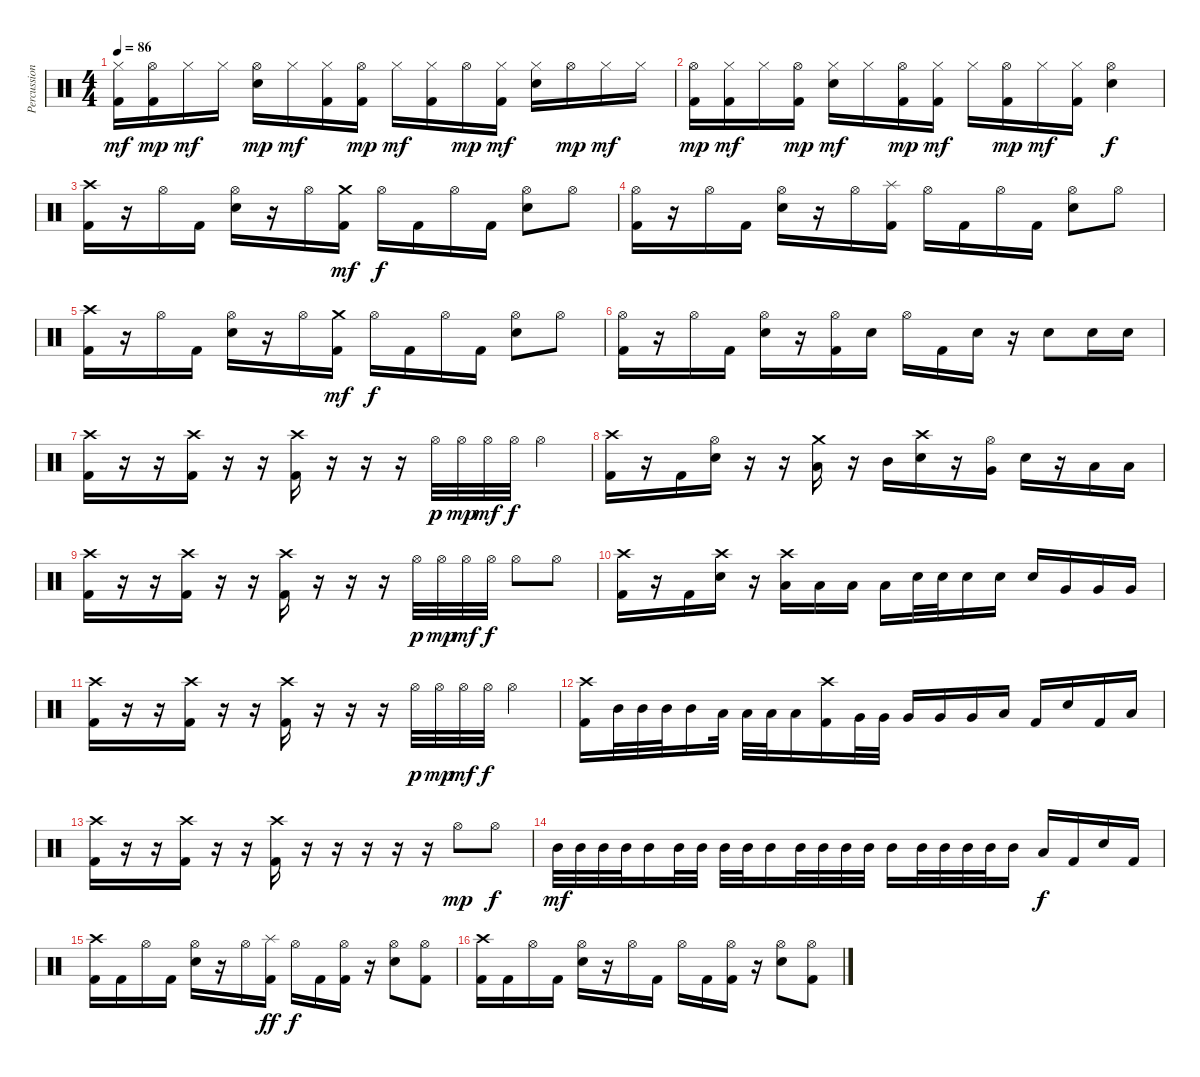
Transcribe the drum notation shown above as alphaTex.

\track ("Percussion" "Percussion") {instrument percussion}
\staff {score}
\articulation defaults
\ts (4 4)
\tempo 86
\clef neutral
\ks c
("Hi-Hat (closed)" "Kick (hit) 2").16{dy mf} ("Hi-Hat (open)" "Kick (hit) 2").16{dy mp} "Hi-Hat (closed)".16{dy mf} "Hi-Hat (closed)".16 ("Hi-Hat (open)" "Electric Snare (hit)").16{dy mp} "Hi-Hat (closed)".16{dy mf} ("Hi-Hat (closed)" "Kick (hit) 2").16 ("Hi-Hat (open)" "Kick (hit) 2").16{dy mp} "Hi-Hat (closed)".16{dy mf} ("Hi-Hat (closed)" "Kick (hit) 2").16 "Hi-Hat (open)".16{dy mp} ("Hi-Hat (closed)" "Kick (hit) 2").16{dy mf} ("Hi-Hat (closed)" "Electric Snare (hit)").16 "Hi-Hat (open)".16{dy mp} "Hi-Hat (closed)".16{dy mf} "Hi-Hat (closed)".16 |
("Hi-Hat (open)" "Kick (hit) 2").16{dy mp} ("Hi-Hat (closed)" "Kick (hit) 2").16{dy mf} "Hi-Hat (closed)".16 ("Hi-Hat (open)" "Kick (hit) 2").16{dy mp} ("Hi-Hat (closed)" "Electric Snare (hit)").16{dy mf} "Hi-Hat (closed)".16 ("Hi-Hat (open)" "Kick (hit) 2").16{dy mp} ("Hi-Hat (closed)" "Kick (hit) 2").16{dy mf} "Hi-Hat (closed)".16 ("Hi-Hat (open)" "Kick (hit) 2").16{dy mp} "Hi-Hat (closed)".16{dy mf} ("Hi-Hat (closed)" "Kick (hit) 2").16 ("Hi-Hat (open)" "Electric Snare (hit)").4{dy f} |
("Crash high (hit)" "Kick (hit) 2").16 r.16 "Hi-Hat (open)".16 "Kick (hit) 2".16 ("Hi-Hat (open)" "Electric Snare (hit)").16 r.16 "Hi-Hat (open)".16 ("Crash medium (hit)" "Kick (hit) 2").16{dy mf} "Hi-Hat (open)".16{dy f} "Kick (hit) 2".16 "Hi-Hat (open)".16 "Kick (hit) 2".16 ("Hi-Hat (open)" "Electric Snare (hit)").8 "Hi-Hat (open)".8 |
("Hi-Hat (open)" "Kick (hit) 2").16 r.16 "Hi-Hat (open)".16 "Kick (hit) 2".16 ("Hi-Hat (open)" "Electric Snare (hit)").16 r.16 "Hi-Hat (open)".16 ("Splash (hit)" "Kick (hit) 2").16 "Hi-Hat (open)".16 "Kick (hit) 2".16 "Hi-Hat (open)".16 "Kick (hit) 2".16 ("Hi-Hat (open)" "Electric Snare (hit)").8 "Hi-Hat (open)".8 |
("Crash high (hit)" "Kick (hit) 2").16 r.16 "Hi-Hat (open)".16 "Kick (hit) 2".16 ("Hi-Hat (open)" "Electric Snare (hit)").16 r.16 "Hi-Hat (open)".16 ("Crash medium (hit)" "Kick (hit) 2").16{dy mf} "Hi-Hat (open)".16{dy f} "Kick (hit) 2".16 "Hi-Hat (open)".16 "Kick (hit) 2".16 ("Hi-Hat (open)" "Electric Snare (hit)").8 "Hi-Hat (open)".8 |
("Hi-Hat (open)" "Kick (hit) 2").16 r.16 "Hi-Hat (open)".16 "Kick (hit) 2".16 ("Hi-Hat (open)" "Electric Snare (hit)").16 r.16 ("Hi-Hat (open)" "Kick (hit) 2").16 "Electric Snare (hit)".16 "Hi-Hat (open)".16 "Kick (hit) 2".16 "Electric Snare (hit)".16 r.16 "Electric Snare (hit)".8 "Electric Snare (hit)".16 "Electric Snare (hit)".16 |
("Crash high (hit)" "Kick (hit) 2").16 r.16 r.16 ("Crash high (hit)" "Kick (hit) 2").16 r.16 r.16 ("Crash high (hit)" "Kick (hit) 2").16 r.16 r.16 r.16 "Hi-Hat (open)".32{dy p} "Hi-Hat (open)".32{dy mp} "Hi-Hat (open)".32{dy mf} "Hi-Hat (open)".32{dy f} "Hi-Hat (open)".4 |
("Crash high (hit)" "Kick (hit) 2").16 r.16 "Kick (hit) 2".16 ("Hi-Hat (open)" "Electric Snare (hit)").16 r.16 r.16 ("Crash medium (hit)" "Low Tom (hit)").16 r.16 "Mid Tom (hit)".16 ("Crash high (hit)" "Electric Snare (hit)").16 r.16 ("Hi-Hat (open)" "Very Low Tom (hit)").16 "Electric Snare (hit)".16 r.16 "Low Tom (hit)".16 "Low Floor Tom (hit)".16 |
("Crash high (hit)" "Kick (hit) 2").16 r.16 r.16 ("Crash high (hit)" "Kick (hit) 2").16 r.16 r.16 ("Crash high (hit)" "Kick (hit) 2").16 r.16 r.16 r.16 "Hi-Hat (open)".32{dy p} "Hi-Hat (open)".32{dy mp} "Hi-Hat (open)".32{dy mf} "Hi-Hat (open)".32{dy f} "Hi-Hat (open)".8 "Hi-Hat (open)".8 |
("Crash high (hit)" "Kick (hit) 2").16 r.16 "Kick (hit) 2".16 ("Crash high (hit)" "Electric Snare (hit)").16 r.16 ("Crash high (hit)" "Low Tom (hit)").16 "Low Tom (hit)".16 "Low Tom (hit)".16 "Low Tom (hit)".16 "Electric Snare (hit)".32 "Electric Snare (hit)".32 "Electric Snare (hit)".16 "Electric Snare (hit)".16 "Electric Snare (hit)".16 "Very Low Tom (hit)".16 "Very Low Tom (hit)".16 "Very Low Tom (hit)".16 |
("Crash high (hit)" "Kick (hit) 2").16 r.16 r.16 ("Crash high (hit)" "Kick (hit) 2").16 r.16 r.16 ("Crash high (hit)" "Kick (hit) 2").16 r.16 r.16 r.16 "Hi-Hat (open)".32{dy p} "Hi-Hat (open)".32{dy mp} "Hi-Hat (open)".32{dy mf} "Hi-Hat (open)".32{dy f} "Hi-Hat (open)".4 |
("Crash high (hit)" "Kick (hit) 2").16 "Mid Tom (hit)".32 "Mid Tom (hit)".32 "Mid Tom (hit)".32 "Mid Tom (hit)".16 "Low Tom (hit)".32 "Low Tom (hit)".32 "Low Tom (hit)".32 "Low Tom (hit)".16 ("Crash high (hit)" "Kick (hit) 2").16 "Very Low Tom (hit)".32 "Very Low Tom (hit)".32 "Very Low Tom (hit)".16 "Very Low Tom (hit)".16 "Very Low Tom (hit)".16 "Low Floor Tom (hit)".16 "Kick (hit) 2".16 "Electric Snare (hit)".16 "Kick (hit) 2".16 "Low Floor Tom (hit)".16 |
("Crash high (hit)" "Kick (hit) 2").16 r.16 r.16 ("Crash high (hit)" "Kick (hit) 2").16 r.16 r.16 ("Crash high (hit)" "Kick (hit) 2").16 r.16 r.16 r.16 r.16 r.16 "Hi-Hat (open)".8{dy mp} "Hi-Hat (open)".8{dy f} |
"Mid Tom (hit)".32{dy mf} "Mid Tom (hit)".32 "Mid Tom (hit)".32 "Mid Tom (hit)".32 "Mid Tom (hit)".16 "Mid Tom (hit)".32 "Mid Tom (hit)".32 "Mid Tom (hit)".32 "Mid Tom (hit)".32 "Mid Tom (hit)".16 "Mid Tom (hit)".32 "Mid Tom (hit)".32 "Mid Tom (hit)".32 "Mid Tom (hit)".32 "Mid Tom (hit)".16 "Mid Tom (hit)".32 "Mid Tom (hit)".32 "Mid Tom (hit)".32 "Mid Tom (hit)".32 "Mid Tom (hit)".16 "Low Tom (hit)".16{dy f} "Kick (hit) 2".16 "Electric Snare (hit)".16 "Kick (hit) 2".16 |
("Crash high (hit)" "Kick (hit) 2").16 "Kick (hit) 2".16 "Hi-Hat (open)".16 "Kick (hit) 2".16 ("Hi-Hat (open)" "Electric Snare (hit)").16 r.16 "Hi-Hat (open)".16 ("Splash (hit)" "Kick (hit) 2").16{dy ff} "Hi-Hat (open)".16{dy f} "Kick (hit) 2".16 ("Hi-Hat (open)" "Kick (hit) 2").16 r.16 ("Hi-Hat (open)" "Electric Snare (hit)").8 ("Hi-Hat (open)" "Kick (hit) 2").8 |
("Crash high (hit)" "Kick (hit) 2").16 "Kick (hit) 2".16 "Hi-Hat (open)".16 "Kick (hit) 2".16 ("Hi-Hat (open)" "Electric Snare (hit)").16 r.16 "Hi-Hat (open)".16 "Kick (hit) 2".16 "Hi-Hat (open)".16 "Kick (hit) 2".16 ("Hi-Hat (open)" "Kick (hit) 2").16 r.16 ("Hi-Hat (open)" "Electric Snare (hit)").8 ("Hi-Hat (open)" "Kick (hit) 2").8
